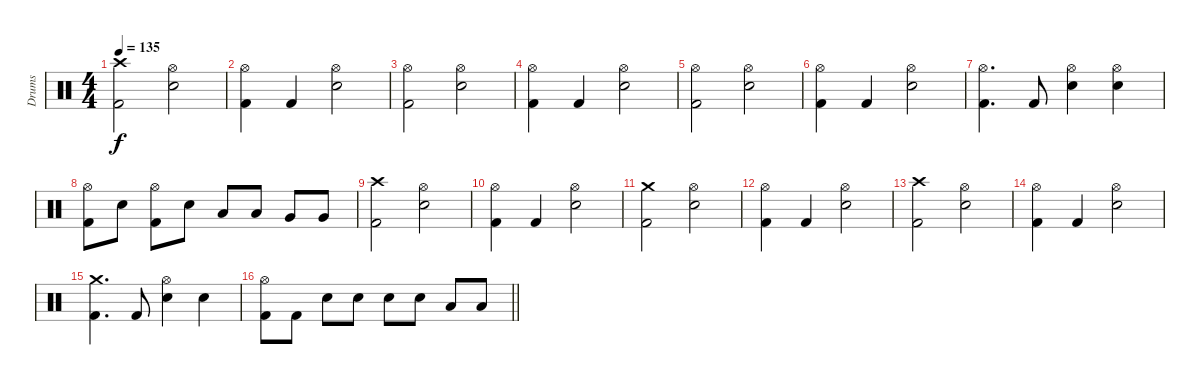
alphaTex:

\track ("Drums" "Drums") {instrument percussion}
\staff {score}
\articulation defaults
\ts (4 4)
\tempo 135
\clef neutral
\ks c
("Crash high (hit)" "Kick (hit) 2").2{dy f} ("Hi-Hat (open)" "Electric Snare (hit)").2 |
("Hi-Hat (open)" "Kick (hit) 2").4 "Kick (hit) 2".4 ("Hi-Hat (open)" "Electric Snare (hit)").2 |
("Hi-Hat (open)" "Kick (hit) 2").2 ("Hi-Hat (open)" "Electric Snare (hit)").2 |
("Hi-Hat (open)" "Kick (hit) 2").4 "Kick (hit) 2".4 ("Hi-Hat (open)" "Electric Snare (hit)").2 |
("Hi-Hat (open)" "Kick (hit) 2").2 ("Hi-Hat (open)" "Electric Snare (hit)").2 |
("Hi-Hat (open)" "Kick (hit) 2").4 "Kick (hit) 2".4 ("Hi-Hat (open)" "Electric Snare (hit)").2 |
("Hi-Hat (open)" "Kick (hit) 2").4{d} "Kick (hit) 2".8 ("Hi-Hat (open)" "Electric Snare (hit)").4 ("Hi-Hat (open)" "Electric Snare (hit)").4 |
("Hi-Hat (open)" "Kick (hit) 2").8 "Electric Snare (hit)".8 ("Hi-Hat (open)" "Kick (hit) 2").8 "Electric Snare (hit)".8 "Low Tom (hit)".8 "Low Tom (hit)".8 "Very Low Tom (hit)".8 "Very Low Tom (hit)".8 |
("Crash high (hit)" "Kick (hit) 2").2 ("Hi-Hat (open)" "Electric Snare (hit)").2 |
("Hi-Hat (open)" "Kick (hit) 2").4 "Kick (hit) 2".4 ("Hi-Hat (open)" "Electric Snare (hit)").2 |
("Crash medium (hit)" "Kick (hit) 2").2 ("Hi-Hat (open)" "Electric Snare (hit)").2 |
("Hi-Hat (open)" "Kick (hit) 2").4 "Kick (hit) 2".4 ("Hi-Hat (open)" "Electric Snare (hit)").2 |
("Crash high (hit)" "Kick (hit) 2").2 ("Hi-Hat (open)" "Electric Snare (hit)").2 |
("Hi-Hat (open)" "Kick (hit) 2").4 "Kick (hit) 2".4 ("Hi-Hat (open)" "Electric Snare (hit)").2 |
("Crash medium (hit)" "Kick (hit) 2").4{d} "Kick (hit) 2".8 ("Electric Snare (hit)" "Hi-Hat (open)").4 "Electric Snare (hit)".4 |
\barLineRight lightlight
("Hi-Hat (open)" "Kick (hit) 2").8 "Kick (hit) 2".8 "Electric Snare (hit)".8 "Electric Snare (hit)".8 "Electric Snare (hit)".8 "Electric Snare (hit)".8 "Low Tom (hit)".8 "Low Tom (hit)".8
